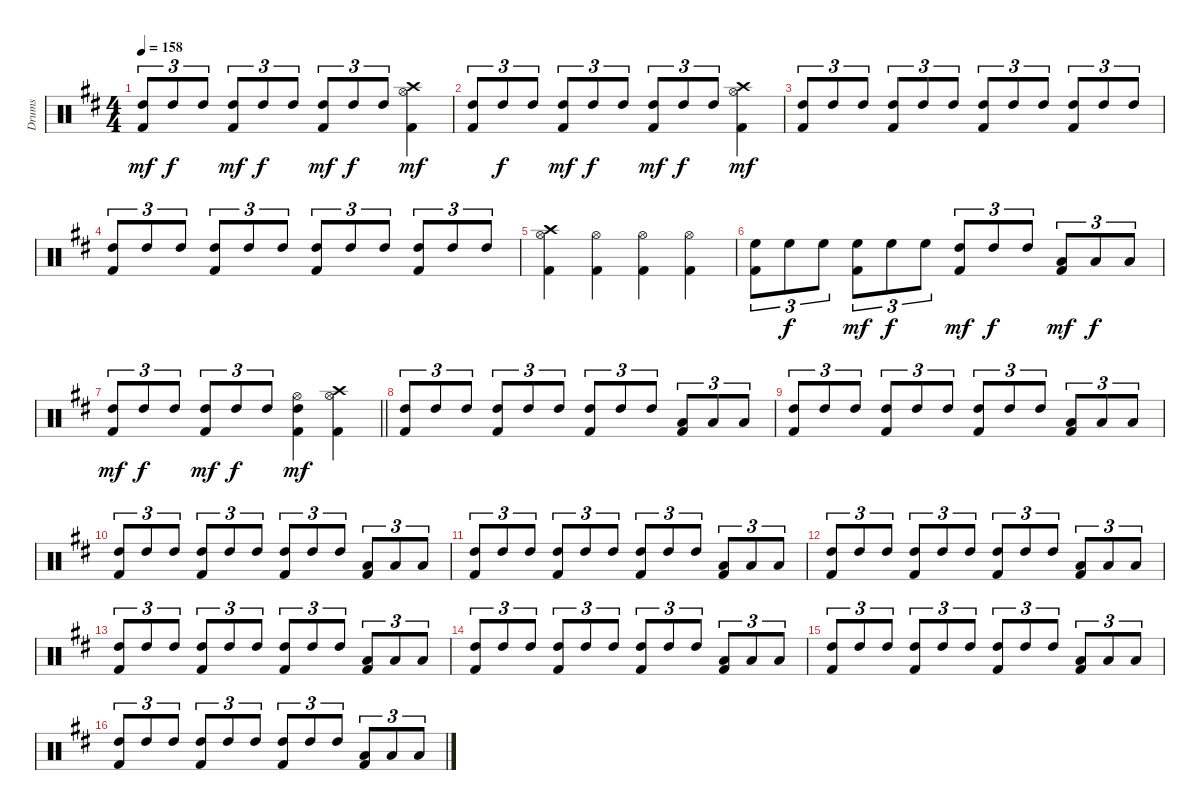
\track ("Drums" "Drums") {instrument percussion}
\staff {score}
\articulation defaults
\ts (4 4)
\tempo 158
\clef neutral
\ks d
("Kick (hit) 2" "High Tom (hit)").8{tu (3 2) dy mf} "High Tom (hit)".8{tu (3 2) dy f} "High Tom (hit)".8{tu (3 2)} ("Kick (hit) 2" "High Tom (hit)").8{tu (3 2) dy mf} "High Tom (hit)".8{tu (3 2) dy f} "High Tom (hit)".8{tu (3 2)} ("Kick (hit) 2" "High Tom (hit)").8{tu (3 2) dy mf} "High Tom (hit)".8{tu (3 2) dy f} "High Tom (hit)".8{tu (3 2)} ("Kick (hit) 2" "Hi-Hat (open)" "Crash high (hit)").4{dy mf} |
("Kick (hit) 2" "High Tom (hit)").8{tu (3 2)} "High Tom (hit)".8{tu (3 2) dy f} "High Tom (hit)".8{tu (3 2)} ("Kick (hit) 2" "High Tom (hit)").8{tu (3 2) dy mf} "High Tom (hit)".8{tu (3 2) dy f} "High Tom (hit)".8{tu (3 2)} ("Kick (hit) 2" "High Tom (hit)").8{tu (3 2) dy mf} "High Tom (hit)".8{tu (3 2) dy f} "High Tom (hit)".8{tu (3 2)} ("Kick (hit) 2" "Hi-Hat (open)" "Crash high (hit)").4{dy mf} |
("Kick (hit) 2" "High Tom (hit)").8{tu (3 2)} "High Tom (hit)".8{tu (3 2)} "High Tom (hit)".8{tu (3 2)} ("Kick (hit) 2" "High Tom (hit)").8{tu (3 2)} "High Tom (hit)".8{tu (3 2)} "High Tom (hit)".8{tu (3 2)} ("Kick (hit) 2" "High Tom (hit)").8{tu (3 2)} "High Tom (hit)".8{tu (3 2)} "High Tom (hit)".8{tu (3 2)} ("Kick (hit) 2" "High Tom (hit)").8{tu (3 2)} "High Tom (hit)".8{tu (3 2)} "High Tom (hit)".8{tu (3 2)} |
("Kick (hit) 2" "High Tom (hit)").8{tu (3 2)} "High Tom (hit)".8{tu (3 2)} "High Tom (hit)".8{tu (3 2)} ("Kick (hit) 2" "High Tom (hit)").8{tu (3 2)} "High Tom (hit)".8{tu (3 2)} "High Tom (hit)".8{tu (3 2)} ("Kick (hit) 2" "High Tom (hit)").8{tu (3 2)} "High Tom (hit)".8{tu (3 2)} "High Tom (hit)".8{tu (3 2)} ("Kick (hit) 2" "High Tom (hit)").8{tu (3 2)} "High Tom (hit)".8{tu (3 2)} "High Tom (hit)".8{tu (3 2)} |
("Kick (hit) 2" "Hi-Hat (open)" "Crash high (hit)").4 ("Kick (hit) 2" "Hi-Hat (open)").4 ("Kick (hit) 2" "Hi-Hat (open)").4 ("Kick (hit) 2" "Hi-Hat (open)").4 |
("Kick (hit) 2" "High Floor Tom (hit)").8{tu (3 2)} "High Floor Tom (hit)".8{tu (3 2) dy f} "High Floor Tom (hit)".8{tu (3 2)} ("Kick (hit) 2" "High Floor Tom (hit)").8{tu (3 2) dy mf} "High Floor Tom (hit)".8{tu (3 2) dy f} "High Floor Tom (hit)".8{tu (3 2)} ("Kick (hit) 2" "High Tom (hit)").8{tu (3 2) dy mf} "High Tom (hit)".8{tu (3 2) dy f} "High Tom (hit)".8{tu (3 2)} ("Kick (hit) 2" "Low Tom (hit)").8{tu (3 2) dy mf} "Low Tom (hit)".8{tu (3 2) dy f} "Low Tom (hit)".8{tu (3 2)} |
\barLineRight lightlight
("Kick (hit) 2" "High Tom (hit)").8{tu (3 2) dy mf} "High Tom (hit)".8{tu (3 2) dy f} "High Tom (hit)".8{tu (3 2)} ("Kick (hit) 2" "High Tom (hit)").8{tu (3 2) dy mf} "High Tom (hit)".8{tu (3 2) dy f} "High Tom (hit)".8{tu (3 2)} ("Kick (hit) 2" "Hi-Hat (open)" "High Tom (hit)").4{dy mf} ("Kick (hit) 2" "Hi-Hat (open)" "Crash high (hit)").4 |
("Kick (hit) 2" "High Tom (hit)").8{tu (3 2)} "High Tom (hit)".8{tu (3 2)} "High Tom (hit)".8{tu (3 2)} ("Kick (hit) 2" "High Tom (hit)").8{tu (3 2)} "High Tom (hit)".8{tu (3 2)} "High Tom (hit)".8{tu (3 2)} ("Kick (hit) 2" "High Tom (hit)").8{tu (3 2)} "High Tom (hit)".8{tu (3 2)} "High Tom (hit)".8{tu (3 2)} ("Kick (hit) 2" "Low Tom (hit)").8{tu (3 2)} "Low Tom (hit)".8{tu (3 2)} "Low Tom (hit)".8{tu (3 2)} |
("Kick (hit) 2" "High Tom (hit)").8{tu (3 2)} "High Tom (hit)".8{tu (3 2)} "High Tom (hit)".8{tu (3 2)} ("Kick (hit) 2" "High Tom (hit)").8{tu (3 2)} "High Tom (hit)".8{tu (3 2)} "High Tom (hit)".8{tu (3 2)} ("Kick (hit) 2" "High Tom (hit)").8{tu (3 2)} "High Tom (hit)".8{tu (3 2)} "High Tom (hit)".8{tu (3 2)} ("Kick (hit) 2" "Low Tom (hit)").8{tu (3 2)} "Low Tom (hit)".8{tu (3 2)} "Low Tom (hit)".8{tu (3 2)} |
("Kick (hit) 2" "High Tom (hit)").8{tu (3 2)} "High Tom (hit)".8{tu (3 2)} "High Tom (hit)".8{tu (3 2)} ("Kick (hit) 2" "High Tom (hit)").8{tu (3 2)} "High Tom (hit)".8{tu (3 2)} "High Tom (hit)".8{tu (3 2)} ("Kick (hit) 2" "High Tom (hit)").8{tu (3 2)} "High Tom (hit)".8{tu (3 2)} "High Tom (hit)".8{tu (3 2)} ("Kick (hit) 2" "Low Tom (hit)").8{tu (3 2)} "Low Tom (hit)".8{tu (3 2)} "Low Tom (hit)".8{tu (3 2)} |
("Kick (hit) 2" "High Tom (hit)").8{tu (3 2)} "High Tom (hit)".8{tu (3 2)} "High Tom (hit)".8{tu (3 2)} ("Kick (hit) 2" "High Tom (hit)").8{tu (3 2)} "High Tom (hit)".8{tu (3 2)} "High Tom (hit)".8{tu (3 2)} ("Kick (hit) 2" "High Tom (hit)").8{tu (3 2)} "High Tom (hit)".8{tu (3 2)} "High Tom (hit)".8{tu (3 2)} ("Kick (hit) 2" "Low Tom (hit)").8{tu (3 2)} "Low Tom (hit)".8{tu (3 2)} "Low Tom (hit)".8{tu (3 2)} |
("Kick (hit) 2" "High Tom (hit)").8{tu (3 2)} "High Tom (hit)".8{tu (3 2)} "High Tom (hit)".8{tu (3 2)} ("Kick (hit) 2" "High Tom (hit)").8{tu (3 2)} "High Tom (hit)".8{tu (3 2)} "High Tom (hit)".8{tu (3 2)} ("Kick (hit) 2" "High Tom (hit)").8{tu (3 2)} "High Tom (hit)".8{tu (3 2)} "High Tom (hit)".8{tu (3 2)} ("Kick (hit) 2" "Low Tom (hit)").8{tu (3 2)} "Low Tom (hit)".8{tu (3 2)} "Low Tom (hit)".8{tu (3 2)} |
("Kick (hit) 2" "High Tom (hit)").8{tu (3 2)} "High Tom (hit)".8{tu (3 2)} "High Tom (hit)".8{tu (3 2)} ("Kick (hit) 2" "High Tom (hit)").8{tu (3 2)} "High Tom (hit)".8{tu (3 2)} "High Tom (hit)".8{tu (3 2)} ("Kick (hit) 2" "High Tom (hit)").8{tu (3 2)} "High Tom (hit)".8{tu (3 2)} "High Tom (hit)".8{tu (3 2)} ("Kick (hit) 2" "Low Tom (hit)").8{tu (3 2)} "Low Tom (hit)".8{tu (3 2)} "Low Tom (hit)".8{tu (3 2)} |
("Kick (hit) 2" "High Tom (hit)").8{tu (3 2)} "High Tom (hit)".8{tu (3 2)} "High Tom (hit)".8{tu (3 2)} ("Kick (hit) 2" "High Tom (hit)").8{tu (3 2)} "High Tom (hit)".8{tu (3 2)} "High Tom (hit)".8{tu (3 2)} ("Kick (hit) 2" "High Tom (hit)").8{tu (3 2)} "High Tom (hit)".8{tu (3 2)} "High Tom (hit)".8{tu (3 2)} ("Kick (hit) 2" "Low Tom (hit)").8{tu (3 2)} "Low Tom (hit)".8{tu (3 2)} "Low Tom (hit)".8{tu (3 2)} |
("Kick (hit) 2" "High Tom (hit)").8{tu (3 2)} "High Tom (hit)".8{tu (3 2)} "High Tom (hit)".8{tu (3 2)} ("Kick (hit) 2" "High Tom (hit)").8{tu (3 2)} "High Tom (hit)".8{tu (3 2)} "High Tom (hit)".8{tu (3 2)} ("Kick (hit) 2" "High Tom (hit)").8{tu (3 2)} "High Tom (hit)".8{tu (3 2)} "High Tom (hit)".8{tu (3 2)} ("Kick (hit) 2" "Low Tom (hit)").8{tu (3 2)} "Low Tom (hit)".8{tu (3 2)} "Low Tom (hit)".8{tu (3 2)} |
("Kick (hit) 2" "High Tom (hit)").8{tu (3 2)} "High Tom (hit)".8{tu (3 2)} "High Tom (hit)".8{tu (3 2)} ("Kick (hit) 2" "High Tom (hit)").8{tu (3 2)} "High Tom (hit)".8{tu (3 2)} "High Tom (hit)".8{tu (3 2)} ("Kick (hit) 2" "High Tom (hit)").8{tu (3 2)} "High Tom (hit)".8{tu (3 2)} "High Tom (hit)".8{tu (3 2)} ("Kick (hit) 2" "Low Tom (hit)").8{tu (3 2)} "Low Tom (hit)".8{tu (3 2)} "Low Tom (hit)".8{tu (3 2)}
